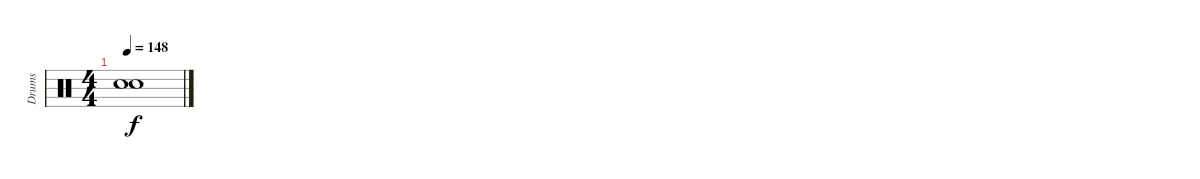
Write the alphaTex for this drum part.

\track ("Drums" "Drums") {instrument percussion}
\staff {score}
\articulation defaults
\ts (4 4)
\tempo 148
\clef neutral
\ks c
("Snare (hit)"{t} "Snare (hit)"{t}).1{dy f}
